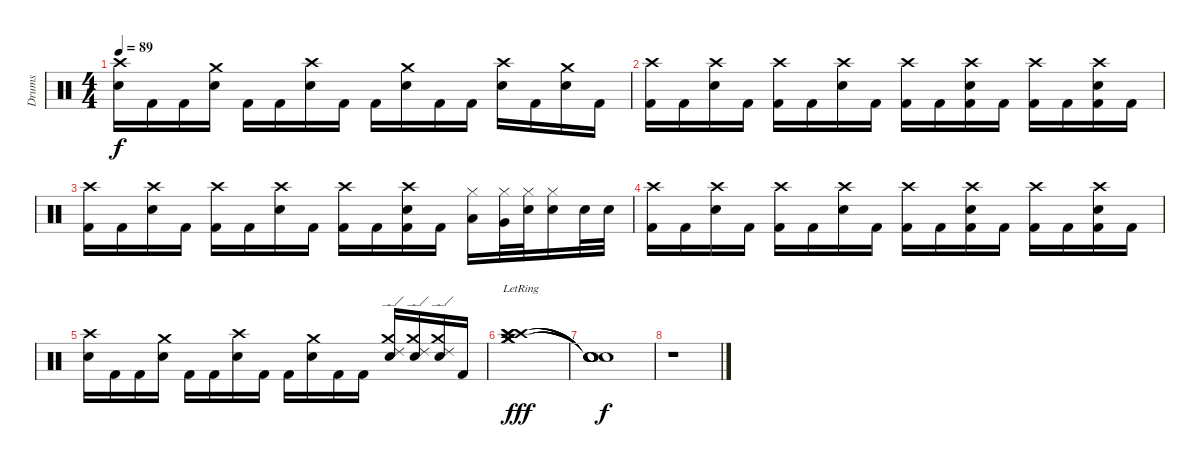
\track ("Drums" "Drums") {instrument percussion}
\staff {score}
\articulation defaults
\ts (4 4)
\tempo 89
\clef neutral
\ks c
("Crash high (hit)" "Electric Snare (hit)").16{dy f} "Kick (hit) 2".16 "Kick (hit) 2".16 ("Crash medium (hit)" "Electric Snare (hit)").16 "Kick (hit) 2".16 "Kick (hit) 2".16 ("Crash high (hit)" "Electric Snare (hit)").16 "Kick (hit) 2".16 "Kick (hit) 2".16 ("Crash medium (hit)" "Electric Snare (hit)").16 "Kick (hit) 2".16 "Kick (hit) 2".16 ("Crash high (hit)" "Electric Snare (hit)").16 "Kick (hit) 2".16 ("Crash medium (hit)" "Electric Snare (hit)").16 "Kick (hit) 2".16 |
("Crash high (hit)" "Kick (hit) 2").16 "Kick (hit) 2".16 ("Crash high (hit)" "Electric Snare (hit)").16 "Kick (hit) 2".16 ("Crash high (hit)" "Kick (hit) 2").16 "Kick (hit) 2".16 ("Crash high (hit)" "Electric Snare (hit)").16 "Kick (hit) 2".16 ("Crash high (hit)" "Kick (hit) 2").16 "Kick (hit) 2".16 ("Crash high (hit)" "Electric Snare (hit)" "Kick (hit) 2").16 "Kick (hit) 2".16 ("Crash high (hit)" "Kick (hit) 2").16 "Kick (hit) 2".16 ("Crash high (hit)" "Electric Snare (hit)" "Kick (hit) 2").16 "Kick (hit) 2".16 |
("Crash high (hit)" "Kick (hit) 2").16 "Kick (hit) 2".16 ("Crash high (hit)" "Electric Snare (hit)").16 "Kick (hit) 2".16 ("Crash high (hit)" "Kick (hit) 2").16 "Kick (hit) 2".16 ("Crash high (hit)" "Electric Snare (hit)").16 "Kick (hit) 2".16 ("Crash high (hit)" "Kick (hit) 2").16 "Kick (hit) 2".16 ("Crash high (hit)" "Electric Snare (hit)" "Kick (hit) 2").16 "Kick (hit) 2".16 ("Hi-Hat (closed)" "Low Tom (hit)").16 ("Hi-Hat (closed)" "Very Low Tom (hit)").32 ("Hi-Hat (closed)" "Electric Snare (hit)").32 ("Hi-Hat (closed)" "Electric Snare (hit)").16 "Electric Snare (hit)".32 "Electric Snare (hit)".32 |
("Crash high (hit)" "Kick (hit) 2").16 "Kick (hit) 2".16 ("Crash high (hit)" "Electric Snare (hit)").16 "Kick (hit) 2".16 ("Crash high (hit)" "Kick (hit) 2").16 "Kick (hit) 2".16 ("Crash high (hit)" "Electric Snare (hit)").16 "Kick (hit) 2".16 ("Crash high (hit)" "Kick (hit) 2").16 "Kick (hit) 2".16 ("Crash high (hit)" "Electric Snare (hit)" "Kick (hit) 2").16 "Kick (hit) 2".16 ("Crash high (hit)" "Kick (hit) 2").16 "Kick (hit) 2".16 ("Crash high (hit)" "Electric Snare (hit)" "Kick (hit) 2").16 "Kick (hit) 2".16 |
("Crash high (hit)" "Electric Snare (hit)").16 "Kick (hit) 2".16 "Kick (hit) 2".16 ("Crash medium (hit)" "Electric Snare (hit)").16 "Kick (hit) 2".16 "Kick (hit) 2".16 ("Crash high (hit)" "Electric Snare (hit)").16 "Kick (hit) 2".16 "Kick (hit) 2".16 ("Crash medium (hit)" "Electric Snare (hit)").16 "Kick (hit) 2".16 "Kick (hit) 2".16 ("Crash medium (hit)" "Ride (edge) 2" "Electric Snare (hit)").16 ("Crash medium (hit)" "Ride (edge) 2" "Electric Snare (hit)").16 ("Crash medium (hit)" "Ride (edge) 2" "Electric Snare (hit)").16 "Kick (hit) 2".16 |
("Crash high (hit)"{lr} "Crash high (hit)"{lr} "Crash high (hit)"{lr} "Crash medium (hit)"{lr} "Crash medium (hit)"{lr} "Crash medium (hit)"{lr}).1{dy fff} |
("Snare (hit)"{t} "Snare (hit)"{t} "Snare (hit)"{t} "Snare (hit)"{t} "Snare (hit)"{t} "Snare (hit)"{t}).1{dy f} |
r.1
